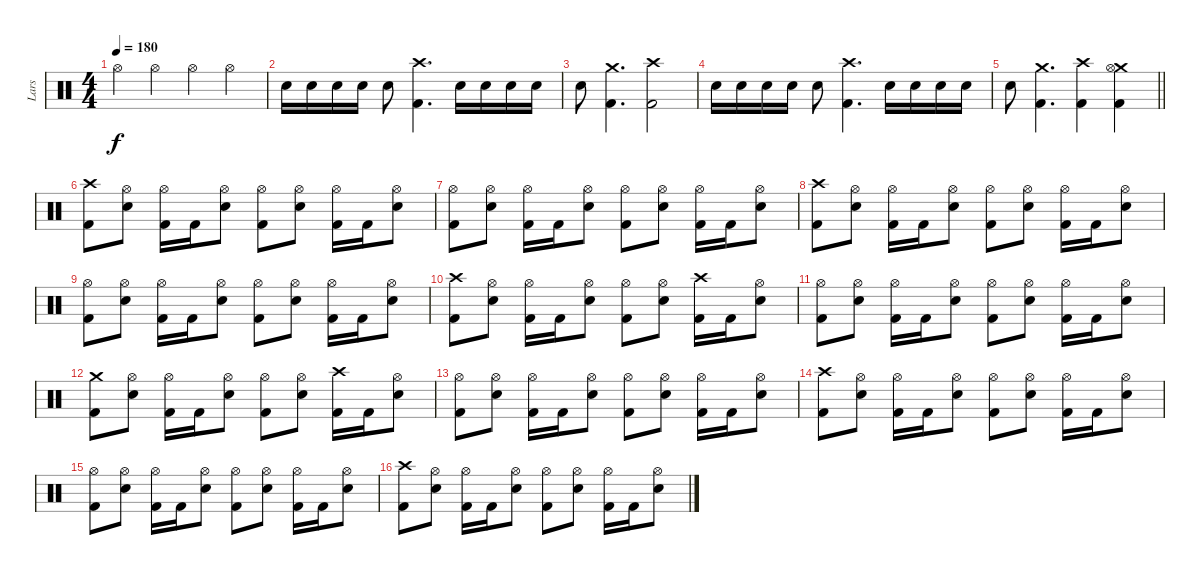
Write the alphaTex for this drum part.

\track ("Lars" "Lars") {instrument percussion}
\staff {score}
\articulation defaults
\ts (4 4)
\tempo 180
\clef neutral
\ks c "Hi-Hat (open)".4{dy f} "Hi-Hat (open)".4 "Hi-Hat (open)".4 "Hi-Hat (open)".4
|
"Electric Snare (hit)".16 "Electric Snare (hit)".16 "Electric Snare (hit)".16 "Electric Snare (hit)".16 "Electric Snare (hit)".8 ("Crash high (hit)" "Kick (hit) 2").4{d} "Electric Snare (hit)".16 "Electric Snare (hit)".16 "Electric Snare (hit)".16 "Electric Snare (hit)".16 |
"Electric Snare (hit)".8 ("Crash medium (hit)" "Kick (hit) 2").4{d} ("Crash high (hit)" "Kick (hit) 2").2 |
"Electric Snare (hit)".16 "Electric Snare (hit)".16 "Electric Snare (hit)".16 "Electric Snare (hit)".16 "Electric Snare (hit)".8 ("Crash high (hit)" "Kick (hit) 2").4{d} "Electric Snare (hit)".16 "Electric Snare (hit)".16 "Electric Snare (hit)".16 "Electric Snare (hit)".16 |
\barLineRight lightlight "Electric Snare (hit)".8
("Crash medium (hit)" "Kick (hit) 2").4{d} ("Crash high (hit)" "Kick (hit) 2").4 ("Crash medium (hit)" "Hi-Hat (open)" "Kick (hit) 2").4 |
\section ("" "")
("Crash high (hit)" "Kick (hit) 2").8 ("Hi-Hat (open)" "Electric Snare (hit)").8 ("Hi-Hat (open)" "Kick (hit) 2").16 "Kick (hit) 2".16 ("Hi-Hat (open)" "Electric Snare (hit)").8 ("Hi-Hat (open)" "Kick (hit) 2").8 ("Hi-Hat (open)" "Electric Snare (hit)").8 ("Hi-Hat (open)" "Kick (hit) 2").16 "Kick (hit) 2".16 ("Hi-Hat (open)" "Electric Snare (hit)").8 |
("Hi-Hat (open)" "Kick (hit) 2").8 ("Hi-Hat (open)" "Electric Snare (hit)").8 ("Hi-Hat (open)" "Kick (hit) 2").16 "Kick (hit) 2".16 ("Hi-Hat (open)" "Electric Snare (hit)").8 ("Hi-Hat (open)" "Kick (hit) 2").8 ("Hi-Hat (open)" "Electric Snare (hit)").8 ("Hi-Hat (open)" "Kick (hit) 2").16 "Kick (hit) 2".16 ("Hi-Hat (open)" "Electric Snare (hit)").8 |
("Crash high (hit)" "Kick (hit) 2").8 ("Hi-Hat (open)" "Electric Snare (hit)").8 ("Hi-Hat (open)" "Kick (hit) 2").16 "Kick (hit) 2".16 ("Hi-Hat (open)" "Electric Snare (hit)").8 ("Hi-Hat (open)" "Kick (hit) 2").8 ("Hi-Hat (open)" "Electric Snare (hit)").8 ("Hi-Hat (open)" "Kick (hit) 2").16 "Kick (hit) 2".16 ("Hi-Hat (open)" "Electric Snare (hit)").8 |
("Hi-Hat (open)" "Kick (hit) 2").8 ("Hi-Hat (open)" "Electric Snare (hit)").8 ("Hi-Hat (open)" "Kick (hit) 2").16 "Kick (hit) 2".16 ("Hi-Hat (open)" "Electric Snare (hit)").8 ("Hi-Hat (open)" "Kick (hit) 2").8 ("Hi-Hat (open)" "Electric Snare (hit)").8 ("Hi-Hat (open)" "Kick (hit) 2").16 "Kick (hit) 2".16 ("Hi-Hat (open)" "Electric Snare (hit)").8 |
("Crash high (hit)" "Kick (hit) 2").8 ("Hi-Hat (open)" "Electric Snare (hit)").8 ("Hi-Hat (open)" "Kick (hit) 2").16 "Kick (hit) 2".16 ("Hi-Hat (open)" "Electric Snare (hit)").8 ("Hi-Hat (open)" "Kick (hit) 2").8 ("Hi-Hat (open)" "Electric Snare (hit)").8 ("Crash high (hit)" "Kick (hit) 2").16 "Kick (hit) 2".16 ("Hi-Hat (open)" "Electric Snare (hit)").8 |
("Hi-Hat (open)" "Kick (hit) 2").8 ("Hi-Hat (open)" "Electric Snare (hit)").8 ("Hi-Hat (open)" "Kick (hit) 2").16 "Kick (hit) 2".16 ("Hi-Hat (open)" "Electric Snare (hit)").8 ("Hi-Hat (open)" "Kick (hit) 2").8 ("Hi-Hat (open)" "Electric Snare (hit)").8 ("Hi-Hat (open)" "Kick (hit) 2").16 "Kick (hit) 2".16 ("Hi-Hat (open)" "Electric Snare (hit)").8 |
("Crash medium (hit)" "Kick (hit) 2").8 ("Hi-Hat (open)" "Electric Snare (hit)").8 ("Hi-Hat (open)" "Kick (hit) 2").16 "Kick (hit) 2".16 ("Hi-Hat (open)" "Electric Snare (hit)").8 ("Hi-Hat (open)" "Kick (hit) 2").8 ("Hi-Hat (open)" "Electric Snare (hit)").8 ("Crash high (hit)" "Kick (hit) 2").16 "Kick (hit) 2".16 ("Hi-Hat (open)" "Electric Snare (hit)").8 |
("Hi-Hat (open)" "Kick (hit) 2").8 ("Hi-Hat (open)" "Electric Snare (hit)").8 ("Hi-Hat (open)" "Kick (hit) 2").16 "Kick (hit) 2".16 ("Hi-Hat (open)" "Electric Snare (hit)").8 ("Hi-Hat (open)" "Kick (hit) 2").8 ("Hi-Hat (open)" "Electric Snare (hit)").8 ("Hi-Hat (open)" "Kick (hit) 2").16 "Kick (hit) 2".16 ("Hi-Hat (open)" "Electric Snare (hit)").8 |
("Crash high (hit)" "Kick (hit) 2").8 ("Hi-Hat (open)" "Electric Snare (hit)").8 ("Hi-Hat (open)" "Kick (hit) 2").16 "Kick (hit) 2".16 ("Hi-Hat (open)" "Electric Snare (hit)").8 ("Hi-Hat (open)" "Kick (hit) 2").8 ("Hi-Hat (open)" "Electric Snare (hit)").8 ("Hi-Hat (open)" "Kick (hit) 2").16 "Kick (hit) 2".16 ("Hi-Hat (open)" "Electric Snare (hit)").8 |
("Hi-Hat (open)" "Kick (hit) 2").8 ("Hi-Hat (open)" "Electric Snare (hit)").8 ("Hi-Hat (open)" "Kick (hit) 2").16 "Kick (hit) 2".16 ("Hi-Hat (open)" "Electric Snare (hit)").8 ("Hi-Hat (open)" "Kick (hit) 2").8 ("Hi-Hat (open)" "Electric Snare (hit)").8 ("Hi-Hat (open)" "Kick (hit) 2").16 "Kick (hit) 2".16 ("Hi-Hat (open)" "Electric Snare (hit)").8 |
("Crash high (hit)" "Kick (hit) 2").8 ("Hi-Hat (open)" "Electric Snare (hit)").8 ("Hi-Hat (open)" "Kick (hit) 2").16 "Kick (hit) 2".16 ("Hi-Hat (open)" "Electric Snare (hit)").8 ("Hi-Hat (open)" "Kick (hit) 2").8 ("Hi-Hat (open)" "Electric Snare (hit)").8 ("Hi-Hat (open)" "Kick (hit) 2").16 "Kick (hit) 2".16 ("Hi-Hat (open)" "Electric Snare (hit)").8
